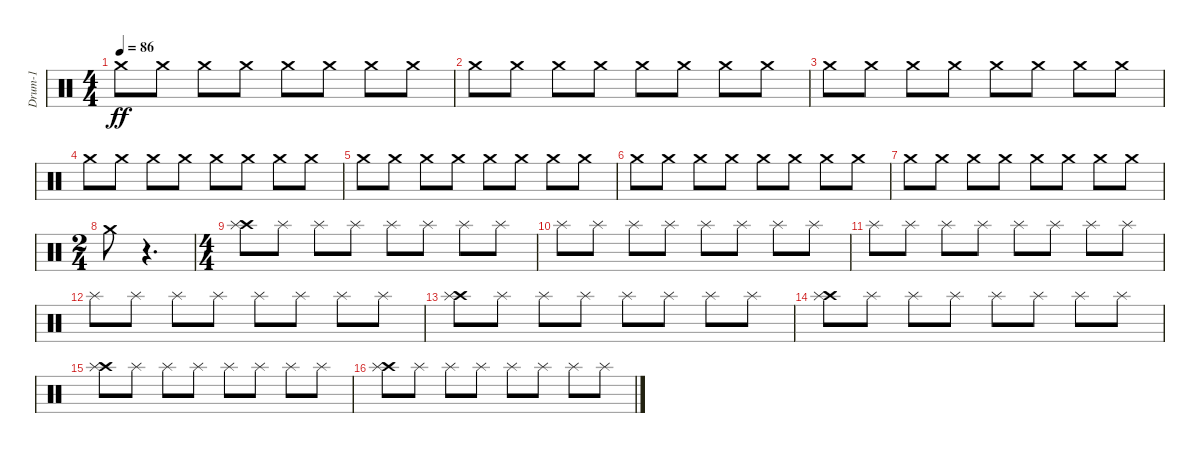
\track ("Drum-1" "Drum-1") {instrument percussion}
\staff {score}
\articulation defaults
\ts (4 4)
\tempo 86
\clef neutral
\ks c "Crash medium (hit)".8{dy ff} "Crash medium (hit)".8 "Crash medium (hit)".8 "Crash medium (hit)".8 "Crash medium (hit)".8 "Crash medium (hit)".8 "Crash medium (hit)".8 "Crash medium (hit)".8
|
"Crash medium (hit)".8 "Crash medium (hit)".8 "Crash medium (hit)".8 "Crash medium (hit)".8 "Crash medium (hit)".8 "Crash medium (hit)".8 "Crash medium (hit)".8 "Crash medium (hit)".8 |
"Crash medium (hit)".8 "Crash medium (hit)".8 "Crash medium (hit)".8 "Crash medium (hit)".8 "Crash medium (hit)".8 "Crash medium (hit)".8 "Crash medium (hit)".8 "Crash medium (hit)".8 |
"Crash medium (hit)".8 "Crash medium (hit)".8 "Crash medium (hit)".8 "Crash medium (hit)".8 "Crash medium (hit)".8 "Crash medium (hit)".8 "Crash medium (hit)".8 "Crash medium (hit)".8 |
"Crash medium (hit)".8 "Crash medium (hit)".8 "Crash medium (hit)".8 "Crash medium (hit)".8 "Crash medium (hit)".8 "Crash medium (hit)".8 "Crash medium (hit)".8 "Crash medium (hit)".8 |
"Crash medium (hit)".8 "Crash medium (hit)".8 "Crash medium (hit)".8 "Crash medium (hit)".8 "Crash medium (hit)".8 "Crash medium (hit)".8 "Crash medium (hit)".8 "Crash medium (hit)".8 |
"Crash medium (hit)".8 "Crash medium (hit)".8 "Crash medium (hit)".8 "Crash medium (hit)".8 "Crash medium (hit)".8 "Crash medium (hit)".8 "Crash medium (hit)".8 "Crash medium (hit)".8 |
\ts (2 4)
"Crash medium (hit)".8 r.4{d} |
\ts (4 4)
("Crash high (hit)" "Splash (hit)").8 "Splash (hit)".8 "Splash (hit)".8 "Splash (hit)".8 "Splash (hit)".8 "Splash (hit)".8 "Splash (hit)".8 "Splash (hit)".8 |
"Splash (hit)".8 "Splash (hit)".8 "Splash (hit)".8 "Splash (hit)".8 "Splash (hit)".8 "Splash (hit)".8 "Splash (hit)".8 "Splash (hit)".8 |
"Splash (hit)".8 "Splash (hit)".8 "Splash (hit)".8 "Splash (hit)".8 "Splash (hit)".8 "Splash (hit)".8 "Splash (hit)".8 "Splash (hit)".8 |
"Splash (hit)".8 "Splash (hit)".8 "Splash (hit)".8 "Splash (hit)".8 "Splash (hit)".8 "Splash (hit)".8 "Splash (hit)".8 "Splash (hit)".8 |
("Crash high (hit)" "Splash (hit)").8 "Splash (hit)".8 "Splash (hit)".8 "Splash (hit)".8 "Splash (hit)".8 "Splash (hit)".8 "Splash (hit)".8 "Splash (hit)".8 |
("Crash high (hit)" "Splash (hit)").8 "Splash (hit)".8 "Splash (hit)".8 "Splash (hit)".8 "Splash (hit)".8 "Splash (hit)".8 "Splash (hit)".8 "Splash (hit)".8 |
("Crash high (hit)" "Splash (hit)").8 "Splash (hit)".8 "Splash (hit)".8 "Splash (hit)".8 "Splash (hit)".8 "Splash (hit)".8 "Splash (hit)".8 "Splash (hit)".8 |
("Crash high (hit)" "Splash (hit)").8 "Splash (hit)".8 "Splash (hit)".8 "Splash (hit)".8 "Splash (hit)".8 "Splash (hit)".8 "Splash (hit)".8 "Splash (hit)".8
